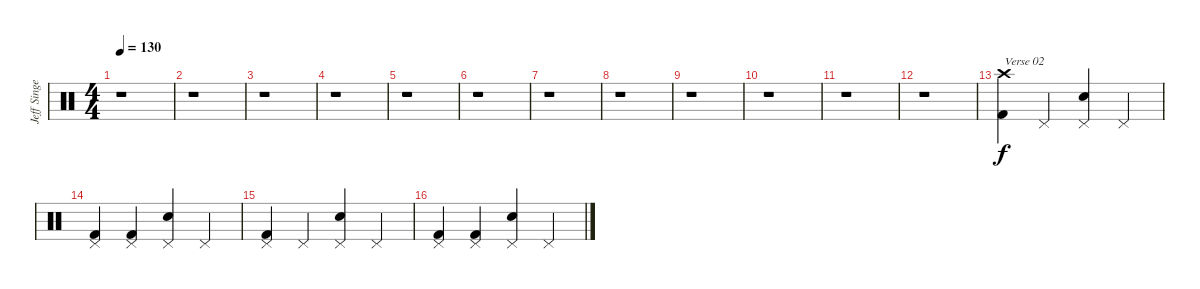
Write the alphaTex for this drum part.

\track ("Jeff Singer" "Jeff Singe") {instrument percussion}
\staff {score}
\articulation defaults
\ts (4 4)
\tempo 130
\clef neutral
\ks c
r.1{dy mp} |
r.1 |
r.1 |
r.1 |
r.1 |
r.1 |
r.1 |
r.1 |
r.1 |
r.1 |
r.1 |
r.1 |
("Crash high (hit)" "Kick (hit) 2").4{txt "Verse 02" dy f} "Pedal Hi-Hat (hit)".4 ("Pedal Hi-Hat (hit)" "Snare (hit) 2").4 "Pedal Hi-Hat (hit)".4 |
("Pedal Hi-Hat (hit)" "Kick (hit) 2").4 ("Pedal Hi-Hat (hit)" "Kick (hit) 2").4 ("Pedal Hi-Hat (hit)" "Snare (hit) 2").4 "Pedal Hi-Hat (hit)".4 |
("Pedal Hi-Hat (hit)" "Kick (hit) 2").4 "Pedal Hi-Hat (hit)".4 ("Pedal Hi-Hat (hit)" "Snare (hit) 2").4 "Pedal Hi-Hat (hit)".4 |
("Pedal Hi-Hat (hit)" "Kick (hit) 2").4 ("Pedal Hi-Hat (hit)" "Kick (hit) 2").4 ("Pedal Hi-Hat (hit)" "Snare (hit) 2").4 "Pedal Hi-Hat (hit)".4
